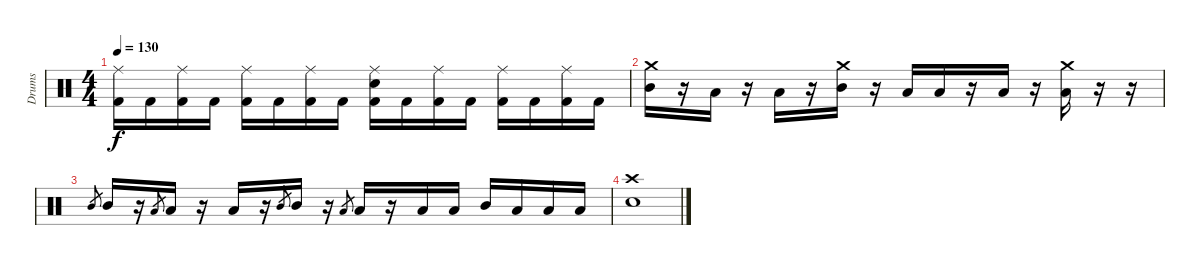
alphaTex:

\track ("Drums" "Drums") {instrument percussion}
\staff {score}
\articulation defaults
\ts (4 4)
\tempo 130
\clef neutral
\ks c
("Ride (middle)" "Kick (hit) 2").16{dy f} "Kick (hit) 2".16 ("Ride (middle)" "Kick (hit) 2").16 "Kick (hit) 2".16 ("Ride (middle)" "Kick (hit) 2").16 "Kick (hit) 2".16 ("Ride (middle)" "Kick (hit) 2").16 "Kick (hit) 2".16 ("Ride (middle)" "Electric Snare (hit)" "Kick (hit) 2").16 "Kick (hit) 2".16 ("Ride (middle)" "Kick (hit) 2").16 "Kick (hit) 2".16 ("Ride (middle)" "Kick (hit) 2").16 "Kick (hit) 2".16 ("Ride (middle)" "Kick (hit) 2").16 "Kick (hit) 2".16 |
("Crash medium (hit)" "Mid Tom (hit)").16 r.16 "Low Tom (hit)".16 r.16 "Low Tom (hit)".16 r.16 ("Crash medium (hit)" "Mid Tom (hit)").16 r.16 "Low Tom (hit)".16 "Low Tom (hit)".16 r.16 "Low Tom (hit)".16 r.16 ("Crash medium (hit)" "Low Tom (hit)").16 r.16 r.16 |
"Mid Tom (hit)".8{gr} "Mid Tom (hit)".16 r.16 "Low Tom (hit)".8{gr} "Low Tom (hit)".16 r.16 "Low Tom (hit)".16 r.16 "Mid Tom (hit)".8{gr} "Mid Tom (hit)".16 r.16 "Low Tom (hit)".8{gr} "Low Tom (hit)".16 r.16 "Low Tom (hit)".16 "Low Tom (hit)".16 "Mid Tom (hit)".16 "Low Tom (hit)".16 "Low Tom (hit)".16 "Low Tom (hit)".16 |
("Crash high (hit)" "Hand Clap (hit)").1
